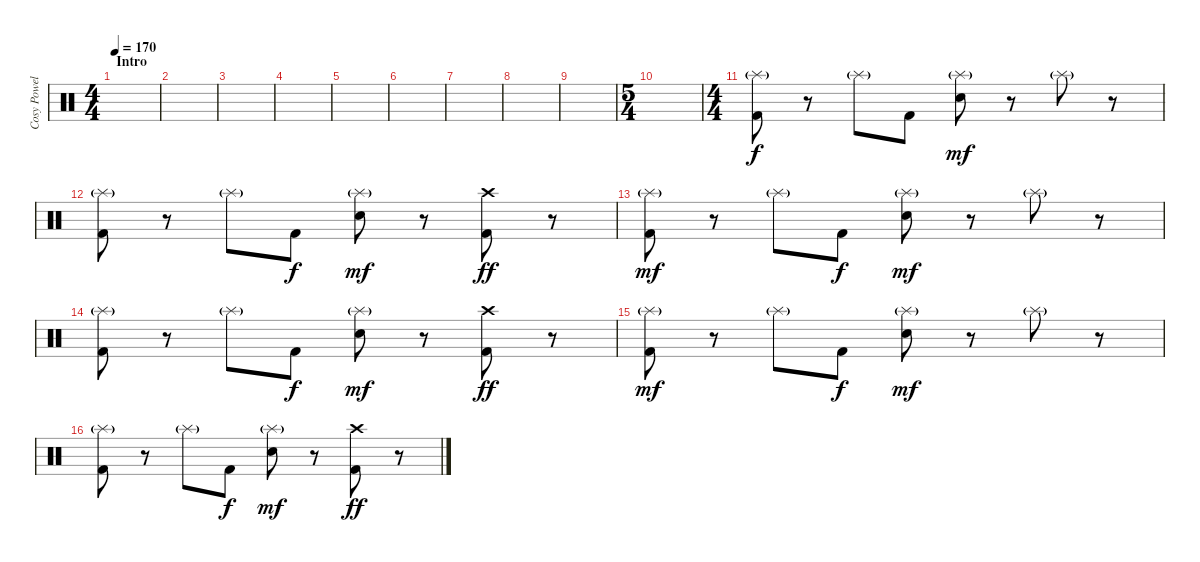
\track ("Cosy Powell" "Cosy Powel") {instrument percussion}
\staff {score}
\articulation defaults
\ts (4 4)
\section ("" "Intro")
\tempo 170
\clef neutral
\ks c
|
|
|
|
|
|
|
|
|
\ts (5 4)
|
\ts (4 4)
("Splash (hit)"{g} "Kick (hit) 2").8 r.8 "Splash (hit)"{g}.8 "Kick (hit) 2".8{dy f} ("Splash (hit)"{g} "Snare (hit) 2").8{dy mf} r.8 "Splash (hit)"{g}.8 r.8 |
("Splash (hit)"{g} "Kick (hit) 2").8 r.8 "Splash (hit)"{g}.8 "Kick (hit) 2".8{dy f} ("Splash (hit)"{g} "Snare (hit) 2").8{dy mf} r.8 ("Crash high (hit)" "Kick (hit) 2").8{dy ff} r.8 |
("Splash (hit)"{g} "Kick (hit) 2").8{dy mf} r.8 "Splash (hit)"{g}.8 "Kick (hit) 2".8{dy f} ("Splash (hit)"{g} "Snare (hit) 2").8{dy mf} r.8 "Splash (hit)"{g}.8 r.8 |
("Splash (hit)"{g} "Kick (hit) 2").8 r.8 "Splash (hit)"{g}.8 "Kick (hit) 2".8{dy f} ("Splash (hit)"{g} "Snare (hit) 2").8{dy mf} r.8 ("Crash high (hit)" "Kick (hit) 2").8{dy ff} r.8 |
("Splash (hit)"{g} "Kick (hit) 2").8{dy mf} r.8 "Splash (hit)"{g}.8 "Kick (hit) 2".8{dy f} ("Splash (hit)"{g} "Snare (hit) 2").8{dy mf} r.8 "Splash (hit)"{g}.8 r.8 |
("Splash (hit)"{g} "Kick (hit) 2").8 r.8 "Splash (hit)"{g}.8 "Kick (hit) 2".8{dy f} ("Splash (hit)"{g} "Snare (hit) 2").8{dy mf} r.8 ("Crash high (hit)" "Kick (hit) 2").8{dy ff} r.8
